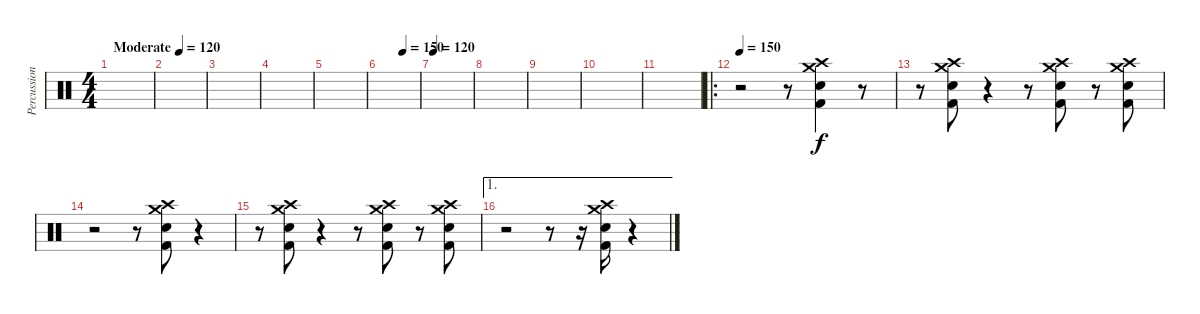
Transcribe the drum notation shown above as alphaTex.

\track ("Percussion" "Percussion") {instrument percussion}
\staff {score}
\articulation defaults
\ts (4 4)
\tempo (120 "Moderate")
\clef neutral
\ks c
|
|
|
|
|
\tempo (150 0.5833333333333334)
|
\tempo 120
|
|
|
|
|
\ro
\tempo 150
r.2 r.8 ("Crash high (hit)" "Kick (hit) 2" "Snare (hit) 2" "Crash medium (hit)").4 r.8 |
r.8 ("Crash high (hit)" "Kick (hit) 2" "Snare (hit) 2" "Crash medium (hit)").8 r.4 r.8 ("Crash high (hit)" "Kick (hit) 2" "Snare (hit) 2" "Crash medium (hit)").8 r.8 ("Crash high (hit)" "Kick (hit) 2" "Snare (hit) 2" "Crash medium (hit)").8 |
r.2 r.8 ("Crash high (hit)" "Kick (hit) 2" "Snare (hit) 2" "Crash medium (hit)").8 r.4 |
r.8 ("Crash high (hit)" "Kick (hit) 2" "Snare (hit) 2" "Crash medium (hit)").8 r.4 r.8 ("Crash high (hit)" "Kick (hit) 2" "Snare (hit) 2" "Crash medium (hit)").8 r.8 ("Crash high (hit)" "Kick (hit) 2" "Snare (hit) 2" "Crash medium (hit)").8 |
\ae 1
r.2 r.8 r.16 ("Crash high (hit)" "Kick (hit) 2" "Snare (hit) 2" "Crash medium (hit)").16 r.4
